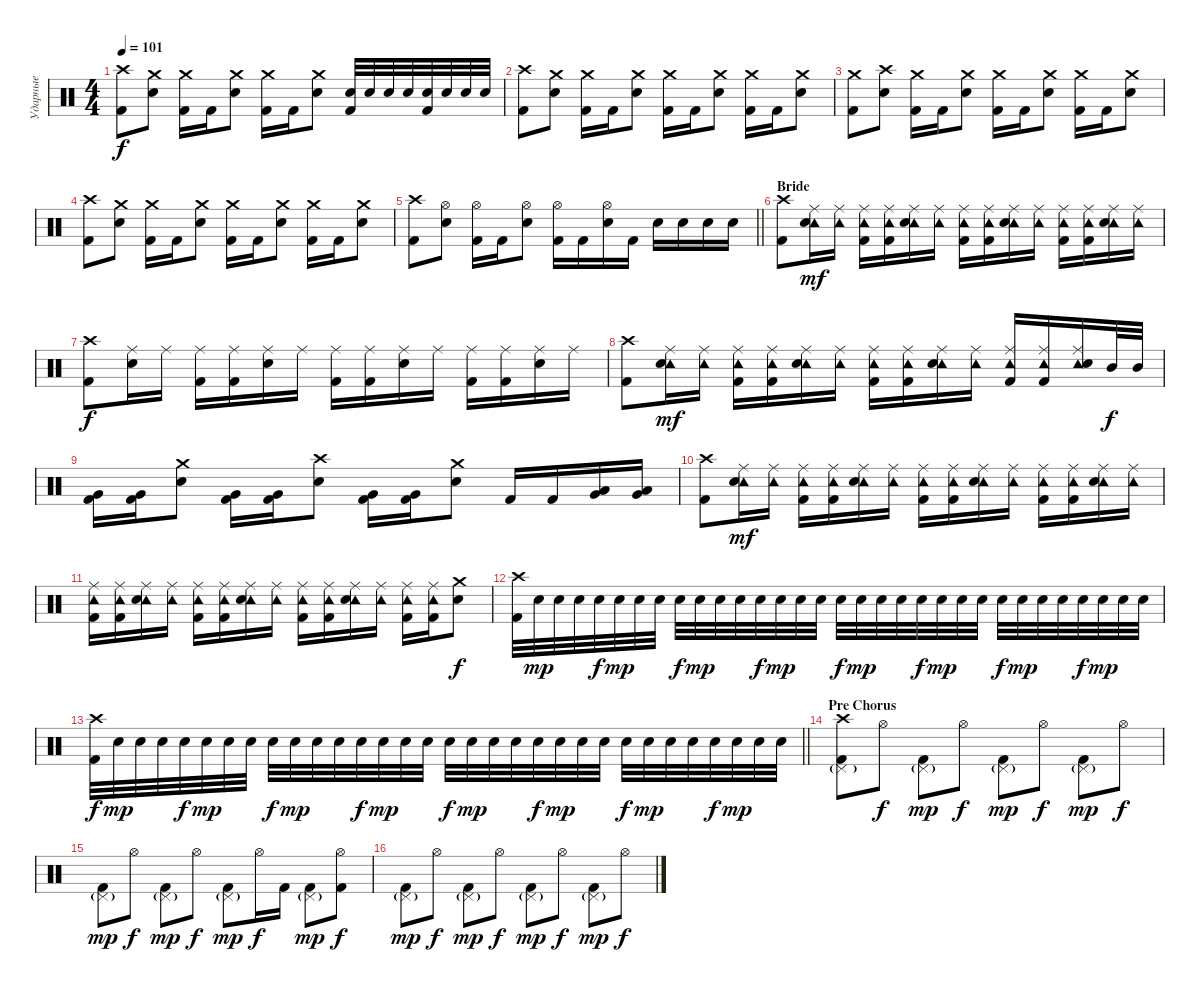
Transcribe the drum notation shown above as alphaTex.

\track ("Ударные" "Ударные") {instrument percussion}
\staff {score}
\articulation defaults
\ts (4 4)
\tempo 101
\clef neutral
\ks c
("Crash high (hit)" "Kick (hit) 2").8{dy f} ("Crash medium (hit)" "Electric Snare (hit)").8 ("Crash medium (hit)" "Kick (hit) 2").16 "Kick (hit) 2".16 ("Crash medium (hit)" "Electric Snare (hit)").8 ("Crash medium (hit)" "Kick (hit) 2").16 "Kick (hit) 2".16 ("Crash medium (hit)" "Electric Snare (hit)").8 ("Electric Snare (hit)" "Kick (hit) 2").32 "Electric Snare (hit)".32 "Electric Snare (hit)".32 "Electric Snare (hit)".32 ("Electric Snare (hit)" "Kick (hit) 2").32 "Electric Snare (hit)".32 "Electric Snare (hit)".32 "Electric Snare (hit)".32 |
("Crash high (hit)" "Kick (hit) 2").8 ("Crash medium (hit)" "Electric Snare (hit)").8 ("Crash medium (hit)" "Kick (hit) 2").16 "Kick (hit) 2".16 ("Crash medium (hit)" "Electric Snare (hit)").8 ("Crash medium (hit)" "Kick (hit) 2").16 "Kick (hit) 2".16 ("Crash medium (hit)" "Electric Snare (hit)").8 ("Crash medium (hit)" "Kick (hit) 2").16 "Kick (hit) 2".16 ("Crash medium (hit)" "Electric Snare (hit)").8 |
("Crash medium (hit)" "Kick (hit) 2").8 ("Crash high (hit)" "Electric Snare (hit)").8 ("Crash medium (hit)" "Kick (hit) 2").16 "Kick (hit) 2".16 ("Crash medium (hit)" "Electric Snare (hit)").8 ("Crash medium (hit)" "Kick (hit) 2").16 "Kick (hit) 2".16 ("Crash medium (hit)" "Electric Snare (hit)").8 ("Crash medium (hit)" "Kick (hit) 2").16 "Kick (hit) 2".16 ("Crash medium (hit)" "Electric Snare (hit)").8 |
("Crash high (hit)" "Kick (hit) 2").8 ("Crash medium (hit)" "Electric Snare (hit)").8 ("Crash medium (hit)" "Kick (hit) 2").16 "Kick (hit) 2".16 ("Crash medium (hit)" "Electric Snare (hit)").8 ("Crash medium (hit)" "Kick (hit) 2").16 "Kick (hit) 2".16 ("Crash medium (hit)" "Electric Snare (hit)").8 ("Crash medium (hit)" "Kick (hit) 2").16 "Kick (hit) 2".16 ("Crash medium (hit)" "Electric Snare (hit)").8 |
\barLineRight lightlight
("Crash high (hit)" "Kick (hit) 2").8 ("Hi-Hat (open)" "Electric Snare (hit)").8 ("Hi-Hat (open)" "Kick (hit) 2").16 "Kick (hit) 2".16 ("Hi-Hat (open)" "Electric Snare (hit)").8 ("Hi-Hat (open)" "Kick (hit) 2").16 "Kick (hit) 2".16 ("Hi-Hat (open)" "Electric Snare (hit)").16 "Kick (hit) 2".16 "Electric Snare (hit)".16 "Electric Snare (hit)".16 "Electric Snare (hit)".16 "Electric Snare (hit)".16 |
\section ("" "Bride")
("Crash high (hit)" "Kick (hit) 2").8 ("Ride (middle)" "Tambourine (hit)" "Electric Snare (hit)").16{dy mf} ("Ride (middle)" "Tambourine (hit)").16 ("Ride (middle)" "Tambourine (hit)" "Kick (hit) 2").16 ("Ride (middle)" "Tambourine (hit)" "Kick (hit) 2").16 ("Ride (middle)" "Tambourine (hit)" "Electric Snare (hit)").16 ("Ride (middle)" "Tambourine (hit)").16 ("Ride (middle)" "Tambourine (hit)" "Kick (hit) 2").16 ("Ride (middle)" "Tambourine (hit)" "Kick (hit) 2").16 ("Ride (middle)" "Tambourine (hit)" "Electric Snare (hit)").16 ("Ride (middle)" "Tambourine (hit)").16 ("Ride (middle)" "Tambourine (hit)" "Kick (hit) 2").16 ("Ride (middle)" "Tambourine (hit)" "Kick (hit) 2").16 ("Ride (middle)" "Tambourine (hit)" "Electric Snare (hit)").16 ("Ride (middle)" "Tambourine (hit)").16 |
("Crash high (hit)" "Kick (hit) 2").8{dy f} ("Ride (middle)" "Electric Snare (hit)").16 "Ride (middle)".16 ("Ride (middle)" "Kick (hit) 2").16 ("Ride (middle)" "Kick (hit) 2").16 ("Ride (middle)" "Electric Snare (hit)").16 "Ride (middle)".16 ("Ride (middle)" "Kick (hit) 2").16 ("Ride (middle)" "Kick (hit) 2").16 ("Ride (middle)" "Electric Snare (hit)").16 "Ride (middle)".16 ("Ride (middle)" "Kick (hit) 2").16 ("Ride (middle)" "Kick (hit) 2").16 ("Ride (middle)" "Electric Snare (hit)").16 "Ride (middle)".16 |
("Crash high (hit)" "Kick (hit) 2").8 ("Ride (middle)" "Tambourine (hit)" "Electric Snare (hit)").16{dy mf} ("Ride (middle)" "Tambourine (hit)").16 ("Ride (middle)" "Tambourine (hit)" "Kick (hit) 2").16 ("Ride (middle)" "Tambourine (hit)" "Kick (hit) 2").16 ("Ride (middle)" "Tambourine (hit)" "Electric Snare (hit)").16 ("Ride (middle)" "Tambourine (hit)").16 ("Ride (middle)" "Tambourine (hit)" "Kick (hit) 2").16 ("Ride (middle)" "Tambourine (hit)" "Kick (hit) 2").16 ("Ride (middle)" "Tambourine (hit)" "Electric Snare (hit)").16 ("Ride (middle)" "Tambourine (hit)").16 ("Ride (middle)" "Tambourine (hit)" "Kick (hit) 2").16 ("Ride (middle)" "Tambourine (hit)" "Kick (hit) 2").16 ("Ride (middle)" "Tambourine (hit)" "Electric Snare (hit)").16 "Mid Tom (hit)".32{dy f} "Mid Tom (hit)".32 |
("Very Low Tom (hit)" "Kick (hit) 2").16 ("Very Low Tom (hit)" "Kick (hit) 2").16 ("Crash medium (hit)" "Electric Snare (hit)").8 ("Very Low Tom (hit)" "Kick (hit) 2").16 ("Very Low Tom (hit)" "Kick (hit) 2").16 ("Crash high (hit)" "Electric Snare (hit)").8 ("Very Low Tom (hit)" "Kick (hit) 2").16 ("Very Low Tom (hit)" "Kick (hit) 2").16 ("Crash medium (hit)" "Electric Snare (hit)").8 "Kick (hit) 2".16 "Kick (hit) 2".16 ("Low Tom (hit)" "Very Low Tom (hit)").16 ("Low Tom (hit)" "Very Low Tom (hit)").16 |
("Crash high (hit)" "Kick (hit) 2").8 ("Ride (middle)" "Tambourine (hit)" "Electric Snare (hit)").16{dy mf} ("Ride (middle)" "Tambourine (hit)").16 ("Ride (middle)" "Tambourine (hit)" "Kick (hit) 2").16 ("Ride (middle)" "Tambourine (hit)" "Kick (hit) 2").16 ("Ride (middle)" "Tambourine (hit)" "Electric Snare (hit)").16 ("Ride (middle)" "Tambourine (hit)").16 ("Ride (middle)" "Tambourine (hit)" "Kick (hit) 2").16 ("Ride (middle)" "Tambourine (hit)" "Kick (hit) 2").16 ("Ride (middle)" "Tambourine (hit)" "Electric Snare (hit)").16 ("Ride (middle)" "Tambourine (hit)").16 ("Ride (middle)" "Tambourine (hit)" "Kick (hit) 2").16 ("Ride (middle)" "Tambourine (hit)" "Kick (hit) 2").16 ("Ride (middle)" "Tambourine (hit)" "Electric Snare (hit)").16 ("Ride (middle)" "Tambourine (hit)").16 |
("Ride (middle)" "Tambourine (hit)" "Kick (hit) 2").16 ("Ride (middle)" "Tambourine (hit)" "Kick (hit) 2").16 ("Ride (middle)" "Tambourine (hit)" "Electric Snare (hit)").16 ("Ride (middle)" "Tambourine (hit)").16 ("Ride (middle)" "Tambourine (hit)" "Kick (hit) 2").16 ("Ride (middle)" "Tambourine (hit)" "Kick (hit) 2").16 ("Ride (middle)" "Tambourine (hit)" "Electric Snare (hit)").16 ("Ride (middle)" "Tambourine (hit)").16 ("Ride (middle)" "Tambourine (hit)" "Kick (hit) 2").16 ("Ride (middle)" "Tambourine (hit)" "Kick (hit) 2").16 ("Ride (middle)" "Tambourine (hit)" "Electric Snare (hit)").16 ("Ride (middle)" "Tambourine (hit)").16 ("Ride (middle)" "Tambourine (hit)" "Kick (hit) 2").16 ("Ride (middle)" "Tambourine (hit)" "Kick (hit) 2").16 ("Crash medium (hit)" "Electric Snare (hit)").8{dy f} |
("Crash high (hit)" "Kick (hit) 2").32 "Electric Snare (hit)".32{dy mp} "Electric Snare (hit)".32 "Electric Snare (hit)".32 "Electric Snare (hit)".32{dy f} "Electric Snare (hit)".32{dy mp} "Electric Snare (hit)".32 "Electric Snare (hit)".32 "Electric Snare (hit)".32{dy f} "Electric Snare (hit)".32{dy mp} "Electric Snare (hit)".32 "Electric Snare (hit)".32 "Electric Snare (hit)".32{dy f} "Electric Snare (hit)".32{dy mp} "Electric Snare (hit)".32 "Electric Snare (hit)".32 "Electric Snare (hit)".32{dy f} "Electric Snare (hit)".32{dy mp} "Electric Snare (hit)".32 "Electric Snare (hit)".32 "Electric Snare (hit)".32{dy f} "Electric Snare (hit)".32{dy mp} "Electric Snare (hit)".32 "Electric Snare (hit)".32 "Electric Snare (hit)".32{dy f} "Electric Snare (hit)".32{dy mp} "Electric Snare (hit)".32 "Electric Snare (hit)".32 "Electric Snare (hit)".32{dy f} "Electric Snare (hit)".32{dy mp} "Electric Snare (hit)".32 "Electric Snare (hit)".32 |
\barLineRight lightlight
("Crash high (hit)" "Kick (hit) 2").32{dy f} "Electric Snare (hit)".32{dy mp} "Electric Snare (hit)".32 "Electric Snare (hit)".32 "Electric Snare (hit)".32{dy f} "Electric Snare (hit)".32{dy mp} "Electric Snare (hit)".32 "Electric Snare (hit)".32 "Electric Snare (hit)".32{dy f} "Electric Snare (hit)".32{dy mp} "Electric Snare (hit)".32 "Electric Snare (hit)".32 "Electric Snare (hit)".32{dy f} "Electric Snare (hit)".32{dy mp} "Electric Snare (hit)".32 "Electric Snare (hit)".32 "Electric Snare (hit)".32{dy f} "Electric Snare (hit)".32{dy mp} "Electric Snare (hit)".32 "Electric Snare (hit)".32 "Electric Snare (hit)".32{dy f} "Electric Snare (hit)".32{dy mp} "Electric Snare (hit)".32 "Electric Snare (hit)".32 "Electric Snare (hit)".32{dy f} "Electric Snare (hit)".32{dy mp} "Electric Snare (hit)".32 "Electric Snare (hit)".32 "Electric Snare (hit)".32{dy f} "Electric Snare (hit)".32{dy mp} "Electric Snare (hit)".32 "Electric Snare (hit)".32 |
\section ("" "Pre Chorus")
("Crash high (hit)" "Pedal Hi-Hat (hit)"{g} "Kick (hit) 2").8 "Hi-Hat (open)".8{dy f} ("Pedal Hi-Hat (hit)"{g} "Kick (hit) 2").8{dy mp} "Hi-Hat (open)".8{dy f} ("Pedal Hi-Hat (hit)"{g} "Kick (hit) 2").8{dy mp} "Hi-Hat (open)".8{dy f} ("Pedal Hi-Hat (hit)"{g} "Kick (hit) 2").8{dy mp} "Hi-Hat (open)".8{dy f} |
("Pedal Hi-Hat (hit)"{g} "Kick (hit) 2").8{dy mp} "Hi-Hat (open)".8{dy f} ("Pedal Hi-Hat (hit)"{g} "Kick (hit) 2").8{dy mp} "Hi-Hat (open)".8{dy f} ("Pedal Hi-Hat (hit)"{g} "Kick (hit) 2").8{dy mp} "Hi-Hat (open)".16{dy f} "Kick (hit) 2".16 ("Pedal Hi-Hat (hit)"{g} "Kick (hit) 2").8{dy mp} ("Hi-Hat (open)" "Kick (hit) 2").8{dy f} |
("Pedal Hi-Hat (hit)"{g} "Kick (hit) 2").8{dy mp} "Hi-Hat (open)".8{dy f} ("Pedal Hi-Hat (hit)"{g} "Kick (hit) 2").8{dy mp} "Hi-Hat (open)".8{dy f} ("Pedal Hi-Hat (hit)"{g} "Kick (hit) 2").8{dy mp} "Hi-Hat (open)".8{dy f} ("Pedal Hi-Hat (hit)"{g} "Kick (hit) 2").8{dy mp} "Hi-Hat (open)".8{dy f}
